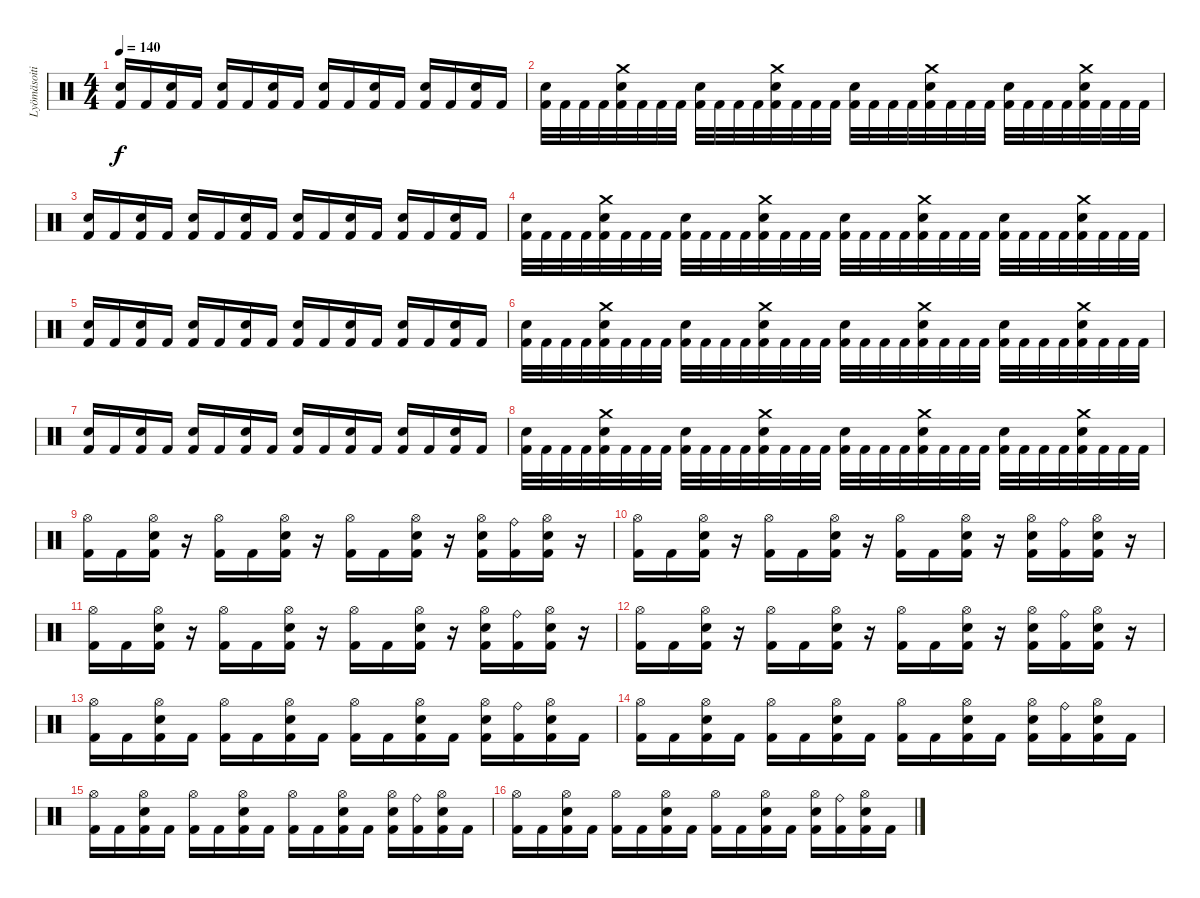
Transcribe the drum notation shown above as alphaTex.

\track ("Lyömäsoitin" "Lyömäsoiti") {instrument percussion}
\staff {score}
\articulation defaults
\ts (4 4)
\tempo 140
\clef neutral
\ks c
("Electric Snare (hit)" "Kick (hit) 2").16{dy f} "Kick (hit) 2".16 ("Electric Snare (hit)" "Kick (hit) 2").16 "Kick (hit) 2".16 ("Electric Snare (hit)" "Kick (hit) 2").16 "Kick (hit) 2".16 ("Electric Snare (hit)" "Kick (hit) 2").16 "Kick (hit) 2".16 ("Electric Snare (hit)" "Kick (hit) 2").16 "Kick (hit) 2".16 ("Electric Snare (hit)" "Kick (hit) 2").16 "Kick (hit) 2".16 ("Electric Snare (hit)" "Kick (hit) 2").16 "Kick (hit) 2".16 ("Electric Snare (hit)" "Kick (hit) 2").16 "Kick (hit) 2".16 |
("Electric Snare (hit)" "Kick (hit) 2").32 "Kick (hit) 2".32 "Kick (hit) 2".32 "Kick (hit) 2".32 ("Crash medium (hit)" "Electric Snare (hit)" "Kick (hit) 2").32 "Kick (hit) 2".32 "Kick (hit) 2".32 "Kick (hit) 2".32 ("Electric Snare (hit)" "Kick (hit) 2").32 "Kick (hit) 2".32 "Kick (hit) 2".32 "Kick (hit) 2".32 ("Crash medium (hit)" "Electric Snare (hit)" "Kick (hit) 2").32 "Kick (hit) 2".32 "Kick (hit) 2".32 "Kick (hit) 2".32 ("Electric Snare (hit)" "Kick (hit) 2").32 "Kick (hit) 2".32 "Kick (hit) 2".32 "Kick (hit) 2".32 ("Crash medium (hit)" "Electric Snare (hit)" "Kick (hit) 2").32 "Kick (hit) 2".32 "Kick (hit) 2".32 "Kick (hit) 2".32 ("Electric Snare (hit)" "Kick (hit) 2").32 "Kick (hit) 2".32 "Kick (hit) 2".32 "Kick (hit) 2".32 ("Crash medium (hit)" "Electric Snare (hit)" "Kick (hit) 2").32 "Kick (hit) 2".32 "Kick (hit) 2".32 "Kick (hit) 2".32 |
("Electric Snare (hit)" "Kick (hit) 2").16 "Kick (hit) 2".16 ("Electric Snare (hit)" "Kick (hit) 2").16 "Kick (hit) 2".16 ("Electric Snare (hit)" "Kick (hit) 2").16 "Kick (hit) 2".16 ("Electric Snare (hit)" "Kick (hit) 2").16 "Kick (hit) 2".16 ("Electric Snare (hit)" "Kick (hit) 2").16 "Kick (hit) 2".16 ("Electric Snare (hit)" "Kick (hit) 2").16 "Kick (hit) 2".16 ("Electric Snare (hit)" "Kick (hit) 2").16 "Kick (hit) 2".16 ("Electric Snare (hit)" "Kick (hit) 2").16 "Kick (hit) 2".16 |
("Electric Snare (hit)" "Kick (hit) 2").32 "Kick (hit) 2".32 "Kick (hit) 2".32 "Kick (hit) 2".32 ("Crash medium (hit)" "Electric Snare (hit)" "Kick (hit) 2").32 "Kick (hit) 2".32 "Kick (hit) 2".32 "Kick (hit) 2".32 ("Electric Snare (hit)" "Kick (hit) 2").32 "Kick (hit) 2".32 "Kick (hit) 2".32 "Kick (hit) 2".32 ("Crash medium (hit)" "Electric Snare (hit)" "Kick (hit) 2").32 "Kick (hit) 2".32 "Kick (hit) 2".32 "Kick (hit) 2".32 ("Electric Snare (hit)" "Kick (hit) 2").32 "Kick (hit) 2".32 "Kick (hit) 2".32 "Kick (hit) 2".32 ("Crash medium (hit)" "Electric Snare (hit)" "Kick (hit) 2").32 "Kick (hit) 2".32 "Kick (hit) 2".32 "Kick (hit) 2".32 ("Electric Snare (hit)" "Kick (hit) 2").32 "Kick (hit) 2".32 "Kick (hit) 2".32 "Kick (hit) 2".32 ("Crash medium (hit)" "Electric Snare (hit)" "Kick (hit) 2").32 "Kick (hit) 2".32 "Kick (hit) 2".32 "Kick (hit) 2".32 |
("Electric Snare (hit)" "Kick (hit) 2").16 "Kick (hit) 2".16 ("Electric Snare (hit)" "Kick (hit) 2").16 "Kick (hit) 2".16 ("Electric Snare (hit)" "Kick (hit) 2").16 "Kick (hit) 2".16 ("Electric Snare (hit)" "Kick (hit) 2").16 "Kick (hit) 2".16 ("Electric Snare (hit)" "Kick (hit) 2").16 "Kick (hit) 2".16 ("Electric Snare (hit)" "Kick (hit) 2").16 "Kick (hit) 2".16 ("Electric Snare (hit)" "Kick (hit) 2").16 "Kick (hit) 2".16 ("Electric Snare (hit)" "Kick (hit) 2").16 "Kick (hit) 2".16 |
("Electric Snare (hit)" "Kick (hit) 2").32 "Kick (hit) 2".32 "Kick (hit) 2".32 "Kick (hit) 2".32 ("Crash medium (hit)" "Electric Snare (hit)" "Kick (hit) 2").32 "Kick (hit) 2".32 "Kick (hit) 2".32 "Kick (hit) 2".32 ("Electric Snare (hit)" "Kick (hit) 2").32 "Kick (hit) 2".32 "Kick (hit) 2".32 "Kick (hit) 2".32 ("Crash medium (hit)" "Electric Snare (hit)" "Kick (hit) 2").32 "Kick (hit) 2".32 "Kick (hit) 2".32 "Kick (hit) 2".32 ("Electric Snare (hit)" "Kick (hit) 2").32 "Kick (hit) 2".32 "Kick (hit) 2".32 "Kick (hit) 2".32 ("Crash medium (hit)" "Electric Snare (hit)" "Kick (hit) 2").32 "Kick (hit) 2".32 "Kick (hit) 2".32 "Kick (hit) 2".32 ("Electric Snare (hit)" "Kick (hit) 2").32 "Kick (hit) 2".32 "Kick (hit) 2".32 "Kick (hit) 2".32 ("Crash medium (hit)" "Electric Snare (hit)" "Kick (hit) 2").32 "Kick (hit) 2".32 "Kick (hit) 2".32 "Kick (hit) 2".32 |
("Electric Snare (hit)" "Kick (hit) 2").16 "Kick (hit) 2".16 ("Electric Snare (hit)" "Kick (hit) 2").16 "Kick (hit) 2".16 ("Electric Snare (hit)" "Kick (hit) 2").16 "Kick (hit) 2".16 ("Electric Snare (hit)" "Kick (hit) 2").16 "Kick (hit) 2".16 ("Electric Snare (hit)" "Kick (hit) 2").16 "Kick (hit) 2".16 ("Electric Snare (hit)" "Kick (hit) 2").16 "Kick (hit) 2".16 ("Electric Snare (hit)" "Kick (hit) 2").16 "Kick (hit) 2".16 ("Electric Snare (hit)" "Kick (hit) 2").16 "Kick (hit) 2".16 |
("Electric Snare (hit)" "Kick (hit) 2").32 "Kick (hit) 2".32 "Kick (hit) 2".32 "Kick (hit) 2".32 ("Crash medium (hit)" "Electric Snare (hit)" "Kick (hit) 2").32 "Kick (hit) 2".32 "Kick (hit) 2".32 "Kick (hit) 2".32 ("Electric Snare (hit)" "Kick (hit) 2").32 "Kick (hit) 2".32 "Kick (hit) 2".32 "Kick (hit) 2".32 ("Crash medium (hit)" "Electric Snare (hit)" "Kick (hit) 2").32 "Kick (hit) 2".32 "Kick (hit) 2".32 "Kick (hit) 2".32 ("Electric Snare (hit)" "Kick (hit) 2").32 "Kick (hit) 2".32 "Kick (hit) 2".32 "Kick (hit) 2".32 ("Crash medium (hit)" "Electric Snare (hit)" "Kick (hit) 2").32 "Kick (hit) 2".32 "Kick (hit) 2".32 "Kick (hit) 2".32 ("Electric Snare (hit)" "Kick (hit) 2").32 "Kick (hit) 2".32 "Kick (hit) 2".32 "Kick (hit) 2".32 ("Crash medium (hit)" "Electric Snare (hit)" "Kick (hit) 2").32 "Kick (hit) 2".32 "Kick (hit) 2".32 "Kick (hit) 2".32 |
("Hi-Hat (open)" "Kick (hit) 2").16 "Kick (hit) 2".16 ("Hi-Hat (open)" "Electric Snare (hit)" "Kick (hit) 2").16 r.16 ("Hi-Hat (open)" "Kick (hit) 2").16 "Kick (hit) 2".16 ("Hi-Hat (open)" "Electric Snare (hit)" "Kick (hit) 2").16 r.16 ("Hi-Hat (open)" "Kick (hit) 2").16 "Kick (hit) 2".16 ("Hi-Hat (open)" "Electric Snare (hit)" "Kick (hit) 2").16 r.16 ("Hi-Hat (open)" "Electric Snare (hit)" "Kick (hit) 2").16 ("Ride (bell)" "Kick (hit) 2").16 ("Hi-Hat (open)" "Electric Snare (hit)" "Kick (hit) 2").16 r.16 |
("Hi-Hat (open)" "Kick (hit) 2").16 "Kick (hit) 2".16 ("Hi-Hat (open)" "Electric Snare (hit)" "Kick (hit) 2").16 r.16 ("Hi-Hat (open)" "Kick (hit) 2").16 "Kick (hit) 2".16 ("Hi-Hat (open)" "Electric Snare (hit)" "Kick (hit) 2").16 r.16 ("Hi-Hat (open)" "Kick (hit) 2").16 "Kick (hit) 2".16 ("Hi-Hat (open)" "Electric Snare (hit)" "Kick (hit) 2").16 r.16 ("Hi-Hat (open)" "Electric Snare (hit)" "Kick (hit) 2").16 ("Ride (bell)" "Kick (hit) 2").16 ("Hi-Hat (open)" "Electric Snare (hit)" "Kick (hit) 2").16 r.16 |
("Hi-Hat (open)" "Kick (hit) 2").16 "Kick (hit) 2".16 ("Hi-Hat (open)" "Electric Snare (hit)" "Kick (hit) 2").16 r.16 ("Hi-Hat (open)" "Kick (hit) 2").16 "Kick (hit) 2".16 ("Hi-Hat (open)" "Electric Snare (hit)" "Kick (hit) 2").16 r.16 ("Hi-Hat (open)" "Kick (hit) 2").16 "Kick (hit) 2".16 ("Hi-Hat (open)" "Electric Snare (hit)" "Kick (hit) 2").16 r.16 ("Hi-Hat (open)" "Electric Snare (hit)" "Kick (hit) 2").16 ("Ride (bell)" "Kick (hit) 2").16 ("Hi-Hat (open)" "Electric Snare (hit)" "Kick (hit) 2").16 r.16 |
("Hi-Hat (open)" "Kick (hit) 2").16 "Kick (hit) 2".16 ("Hi-Hat (open)" "Electric Snare (hit)" "Kick (hit) 2").16 r.16 ("Hi-Hat (open)" "Kick (hit) 2").16 "Kick (hit) 2".16 ("Hi-Hat (open)" "Electric Snare (hit)" "Kick (hit) 2").16 r.16 ("Hi-Hat (open)" "Kick (hit) 2").16 "Kick (hit) 2".16 ("Hi-Hat (open)" "Electric Snare (hit)" "Kick (hit) 2").16 r.16 ("Hi-Hat (open)" "Electric Snare (hit)" "Kick (hit) 2").16 ("Ride (bell)" "Kick (hit) 2").16 ("Hi-Hat (open)" "Electric Snare (hit)" "Kick (hit) 2").16 r.16 |
("Hi-Hat (open)" "Kick (hit) 2").16 "Kick (hit) 2".16 ("Hi-Hat (open)" "Electric Snare (hit)" "Kick (hit) 2").16 "Kick (hit) 2".16 ("Hi-Hat (open)" "Kick (hit) 2").16 "Kick (hit) 2".16 ("Hi-Hat (open)" "Electric Snare (hit)" "Kick (hit) 2").16 "Kick (hit) 2".16 ("Hi-Hat (open)" "Kick (hit) 2").16 "Kick (hit) 2".16 ("Hi-Hat (open)" "Electric Snare (hit)" "Kick (hit) 2").16 "Kick (hit) 2".16 ("Hi-Hat (open)" "Electric Snare (hit)" "Kick (hit) 2").16 ("Ride (bell)" "Kick (hit) 2").16 ("Hi-Hat (open)" "Electric Snare (hit)" "Kick (hit) 2").16 "Kick (hit) 2".16 |
("Hi-Hat (open)" "Kick (hit) 2").16 "Kick (hit) 2".16 ("Hi-Hat (open)" "Electric Snare (hit)" "Kick (hit) 2").16 "Kick (hit) 2".16 ("Hi-Hat (open)" "Kick (hit) 2").16 "Kick (hit) 2".16 ("Hi-Hat (open)" "Electric Snare (hit)" "Kick (hit) 2").16 "Kick (hit) 2".16 ("Hi-Hat (open)" "Kick (hit) 2").16 "Kick (hit) 2".16 ("Hi-Hat (open)" "Electric Snare (hit)" "Kick (hit) 2").16 "Kick (hit) 2".16 ("Hi-Hat (open)" "Electric Snare (hit)" "Kick (hit) 2").16 ("Ride (bell)" "Kick (hit) 2").16 ("Hi-Hat (open)" "Electric Snare (hit)" "Kick (hit) 2").16 "Kick (hit) 2".16 |
("Hi-Hat (open)" "Kick (hit) 2").16 "Kick (hit) 2".16 ("Hi-Hat (open)" "Electric Snare (hit)" "Kick (hit) 2").16 "Kick (hit) 2".16 ("Hi-Hat (open)" "Kick (hit) 2").16 "Kick (hit) 2".16 ("Hi-Hat (open)" "Electric Snare (hit)" "Kick (hit) 2").16 "Kick (hit) 2".16 ("Hi-Hat (open)" "Kick (hit) 2").16 "Kick (hit) 2".16 ("Hi-Hat (open)" "Electric Snare (hit)" "Kick (hit) 2").16 "Kick (hit) 2".16 ("Hi-Hat (open)" "Electric Snare (hit)" "Kick (hit) 2").16 ("Ride (bell)" "Kick (hit) 2").16 ("Hi-Hat (open)" "Electric Snare (hit)" "Kick (hit) 2").16 "Kick (hit) 2".16 |
("Hi-Hat (open)" "Kick (hit) 2").16 "Kick (hit) 2".16 ("Hi-Hat (open)" "Electric Snare (hit)" "Kick (hit) 2").16 "Kick (hit) 2".16 ("Hi-Hat (open)" "Kick (hit) 2").16 "Kick (hit) 2".16 ("Hi-Hat (open)" "Electric Snare (hit)" "Kick (hit) 2").16 "Kick (hit) 2".16 ("Hi-Hat (open)" "Kick (hit) 2").16 "Kick (hit) 2".16 ("Hi-Hat (open)" "Electric Snare (hit)" "Kick (hit) 2").16 "Kick (hit) 2".16 ("Hi-Hat (open)" "Electric Snare (hit)" "Kick (hit) 2").16 ("Ride (bell)" "Kick (hit) 2").16 ("Hi-Hat (open)" "Electric Snare (hit)" "Kick (hit) 2").16 "Kick (hit) 2".16
